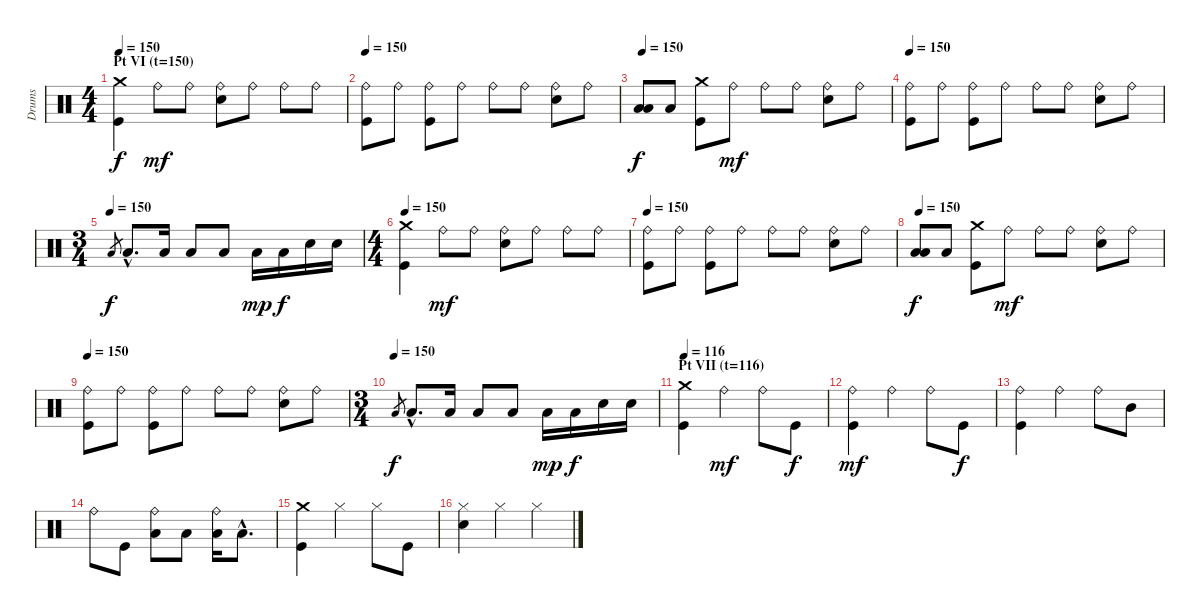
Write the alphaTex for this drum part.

\track ("Drums" "Drums") {instrument percussion}
\staff {score}
\articulation defaults
\ts (4 4)
\section ("" "Pt VI (t=150)")
\tempo 150
\clef neutral
\ks c
("Kick (hit)" "Crash medium (hit)").4{dy f} "Ride (bell)".8{dy mf} "Ride (bell)".8 ("Electric Snare (hit)" "Ride (bell)").8 "Ride (bell)".8 "Ride (bell)".8 "Ride (bell)".8 |
\tempo 150
("Kick (hit)" "Ride (bell)").8 "Ride (bell)".8 ("Kick (hit)" "Ride (bell)").8 "Ride (bell)".8 "Ride (bell)".8 "Ride (bell)".8 ("Electric Snare (hit)" "Ride (bell)").8 "Ride (bell)".8 |
\tempo 150
("Low Tom (hit)" "Low Tom (hit)").8{dy f} "Low Tom (hit)".8 ("Kick (hit)" "Crash medium (hit)").8 "Ride (bell)".8{dy mf} "Ride (bell)".8 "Ride (bell)".8 ("Electric Snare (hit)" "Ride (bell)").8 "Ride (bell)".8 |
\tempo 150
("Kick (hit)" "Ride (bell)").8 "Ride (bell)".8 ("Kick (hit)" "Ride (bell)").8 "Ride (bell)".8 "Ride (bell)".8 "Ride (bell)".8 ("Electric Snare (hit)" "Ride (bell)").8 "Ride (bell)".8 |
\ts (3 4)
\tempo (150)
"Low Tom (hit)".8{gr dy f} "Low Tom (hit)"{hac}.8{d} "Low Tom (hit)".16 "Low Tom (hit)".8 "Low Tom (hit)".8 "Low Tom (hit)".16{dy mp} "Low Tom (hit)".16{dy f} "Electric Snare (hit)".16 "Electric Snare (hit)".16 |
\ts (4 4)
\tempo 150
("Kick (hit)" "Crash medium (hit)").4 "Ride (bell)".8{dy mf} "Ride (bell)".8 ("Electric Snare (hit)" "Ride (bell)").8 "Ride (bell)".8 "Ride (bell)".8 "Ride (bell)".8 |
\tempo 150
("Kick (hit)" "Ride (bell)").8 "Ride (bell)".8 ("Kick (hit)" "Ride (bell)").8 "Ride (bell)".8 "Ride (bell)".8 "Ride (bell)".8 ("Electric Snare (hit)" "Ride (bell)").8 "Ride (bell)".8 |
\tempo 150
("Low Tom (hit)" "Low Tom (hit)").8{dy f} "Low Tom (hit)".8 ("Kick (hit)" "Crash medium (hit)").8 "Ride (bell)".8{dy mf} "Ride (bell)".8 "Ride (bell)".8 ("Electric Snare (hit)" "Ride (bell)").8 "Ride (bell)".8 |
\tempo 150
("Kick (hit)" "Ride (bell)").8 "Ride (bell)".8 ("Kick (hit)" "Ride (bell)").8 "Ride (bell)".8 "Ride (bell)".8 "Ride (bell)".8 ("Electric Snare (hit)" "Ride (bell)").8 "Ride (bell)".8 |
\ts (3 4)
\tempo (150)
"Low Tom (hit)".8{gr dy f} "Low Tom (hit)"{hac}.8{d} "Low Tom (hit)".16 "Low Tom (hit)".8 "Low Tom (hit)".8 "Low Tom (hit)".16{dy mp} "Low Tom (hit)".16{dy f} "Electric Snare (hit)".16 "Electric Snare (hit)".16 |
\section ("" "Pt VII (t=116)")
\tempo 116
("Kick (hit)" "Crash medium (hit)").4 "Ride (bell)".4{dy mf} "Ride (bell)".8 "Kick (hit)".8{dy f} |
("Kick (hit)" "Ride (bell)").4{dy mf} "Ride (bell)".4 "Ride (bell)".8 "Kick (hit)".8{dy f} |
("Kick (hit)" "Ride (bell)").4 "Ride (bell)".4 "Ride (bell)".8 "Mid Tom (hit)".8 |
"Ride (bell)".8 "Kick (hit)".8 ("Low Tom (hit)" "Ride (bell)").8 "Low Tom (hit)".8 ("Low Tom (hit)" "Ride (bell)").16 "Low Tom (hit)"{hac}.8{d} |
("Kick (hit)" "Crash medium (hit)").4 "Hi-Hat (closed)".4 "Hi-Hat (closed)".8 "Kick (hit)".8 |
("Electric Snare (hit)" "Hi-Hat (closed)").4 "Hi-Hat (closed)".4 "Hi-Hat (closed)".4
